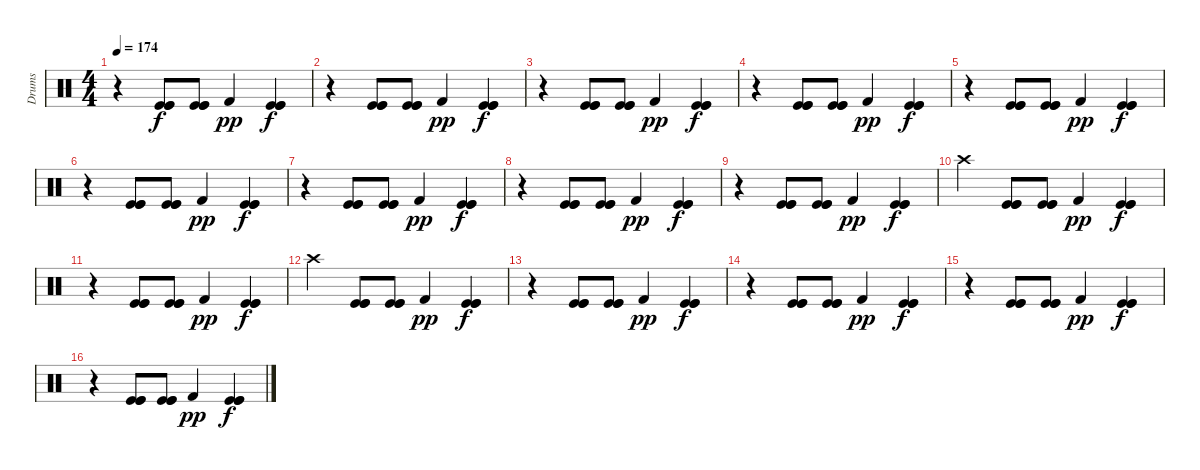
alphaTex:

\track ("Drums" "Drums") {instrument percussion}
\staff {score}
\articulation defaults
\ts (4 4)
\tempo 174
\clef neutral
\ks c
r.4{dy f} ("Kick (hit)" "Kick (hit)" "Kick (hit)").8 ("Kick (hit)" "Kick (hit)" "Kick (hit)").8 "Kick (hit) 2".4{dy pp} ("Kick (hit)" "Kick (hit)" "Kick (hit)").4{dy f} |
r.4 ("Kick (hit)" "Kick (hit)" "Kick (hit)").8 ("Kick (hit)" "Kick (hit)" "Kick (hit)").8 "Kick (hit) 2".4{dy pp} ("Kick (hit)" "Kick (hit)" "Kick (hit)").4{dy f} |
r.4 ("Kick (hit)" "Kick (hit)" "Kick (hit)").8 ("Kick (hit)" "Kick (hit)" "Kick (hit)").8 "Kick (hit) 2".4{dy pp} ("Kick (hit)" "Kick (hit)" "Kick (hit)").4{dy f} |
r.4 ("Kick (hit)" "Kick (hit)" "Kick (hit)").8 ("Kick (hit)" "Kick (hit)" "Kick (hit)").8 "Kick (hit) 2".4{dy pp} ("Kick (hit)" "Kick (hit)" "Kick (hit)").4{dy f} |
r.4 ("Kick (hit)" "Kick (hit)" "Kick (hit)").8 ("Kick (hit)" "Kick (hit)" "Kick (hit)").8 "Kick (hit) 2".4{dy pp} ("Kick (hit)" "Kick (hit)" "Kick (hit)").4{dy f} |
r.4 ("Kick (hit)" "Kick (hit)" "Kick (hit)").8 ("Kick (hit)" "Kick (hit)" "Kick (hit)").8 "Kick (hit) 2".4{dy pp} ("Kick (hit)" "Kick (hit)" "Kick (hit)").4{dy f} |
r.4 ("Kick (hit)" "Kick (hit)" "Kick (hit)").8 ("Kick (hit)" "Kick (hit)" "Kick (hit)").8 "Kick (hit) 2".4{dy pp} ("Kick (hit)" "Kick (hit)" "Kick (hit)").4{dy f} |
r.4 ("Kick (hit)" "Kick (hit)" "Kick (hit)").8 ("Kick (hit)" "Kick (hit)" "Kick (hit)").8 "Kick (hit) 2".4{dy pp} ("Kick (hit)" "Kick (hit)" "Kick (hit)").4{dy f} |
r.4 ("Kick (hit)" "Kick (hit)" "Kick (hit)").8 ("Kick (hit)" "Kick (hit)" "Kick (hit)").8 "Kick (hit) 2".4{dy pp} ("Kick (hit)" "Kick (hit)" "Kick (hit)").4{dy f} |
"Crash high (hit)".4 ("Kick (hit)" "Kick (hit)" "Kick (hit)").8 ("Kick (hit)" "Kick (hit)" "Kick (hit)").8 "Kick (hit) 2".4{dy pp} ("Kick (hit)" "Kick (hit)" "Kick (hit)").4{dy f} |
r.4 ("Kick (hit)" "Kick (hit)" "Kick (hit)").8 ("Kick (hit)" "Kick (hit)" "Kick (hit)").8 "Kick (hit) 2".4{dy pp} ("Kick (hit)" "Kick (hit)" "Kick (hit)").4{dy f} |
"Crash high (hit)".4 ("Kick (hit)" "Kick (hit)" "Kick (hit)").8 ("Kick (hit)" "Kick (hit)" "Kick (hit)").8 "Kick (hit) 2".4{dy pp} ("Kick (hit)" "Kick (hit)" "Kick (hit)").4{dy f} |
r.4 ("Kick (hit)" "Kick (hit)" "Kick (hit)").8 ("Kick (hit)" "Kick (hit)" "Kick (hit)").8 "Kick (hit) 2".4{dy pp} ("Kick (hit)" "Kick (hit)" "Kick (hit)").4{dy f} |
r.4 ("Kick (hit)" "Kick (hit)" "Kick (hit)").8 ("Kick (hit)" "Kick (hit)" "Kick (hit)").8 "Kick (hit) 2".4{dy pp} ("Kick (hit)" "Kick (hit)" "Kick (hit)").4{dy f} |
r.4 ("Kick (hit)" "Kick (hit)" "Kick (hit)").8 ("Kick (hit)" "Kick (hit)" "Kick (hit)").8 "Kick (hit) 2".4{dy pp} ("Kick (hit)" "Kick (hit)" "Kick (hit)").4{dy f} |
r.4 ("Kick (hit)" "Kick (hit)" "Kick (hit)").8 ("Kick (hit)" "Kick (hit)" "Kick (hit)").8 "Kick (hit) 2".4{dy pp} ("Kick (hit)" "Kick (hit)" "Kick (hit)").4{dy f}
